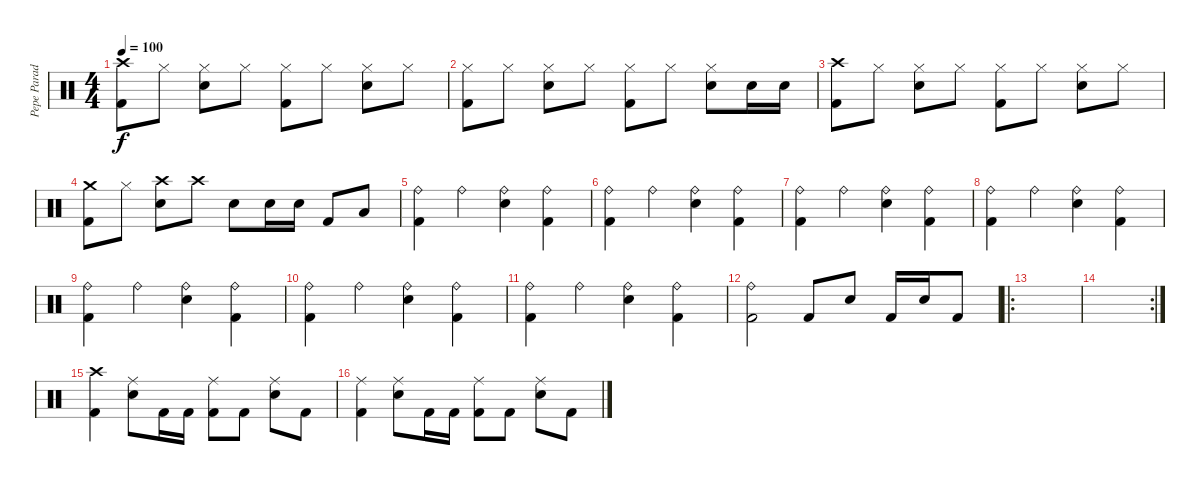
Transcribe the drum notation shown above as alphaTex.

\track ("Pepe Parada (kit de percusion)" "Pepe Parad") {instrument percussion}
\staff {score}
\articulation defaults
\ts (4 4)
\tempo 100
\clef neutral
\ks c
("Crash high (hit)" "Kick (hit) 2").8{dy f} "Hi-Hat (closed)".8 ("Hi-Hat (closed)" "Snare (hit) 2").8 "Hi-Hat (closed)".8 ("Hi-Hat (closed)" "Kick (hit) 2").8 "Hi-Hat (closed)".8 ("Hi-Hat (closed)" "Snare (hit) 2").8 "Hi-Hat (closed)".8 |
("Hi-Hat (closed)" "Kick (hit) 2").8 "Hi-Hat (closed)".8 ("Hi-Hat (closed)" "Snare (hit) 2").8 "Hi-Hat (closed)".8 ("Hi-Hat (closed)" "Kick (hit) 2").8 "Hi-Hat (closed)".8 ("Hi-Hat (closed)" "Snare (hit) 2").8 "Snare (hit) 2".16 "Snare (hit) 2".16 |
("Crash high (hit)" "Kick (hit) 2").8 "Hi-Hat (closed)".8 ("Hi-Hat (closed)" "Snare (hit) 2").8 "Hi-Hat (closed)".8 ("Hi-Hat (closed)" "Kick (hit) 2").8 "Hi-Hat (closed)".8 ("Hi-Hat (closed)" "Snare (hit) 2").8 "Hi-Hat (closed)".8 |
("Crash medium (hit)" "Kick (hit) 2").8 "Hi-Hat (closed)".8 ("Crash high (hit)" "Snare (hit) 2").8 "Crash high (hit)".8 "Snare (hit) 2".8 "Snare (hit) 2".16 "Snare (hit) 2".16 "Kick (hit) 2".8 "Low Floor Tom (hit)".8 |
("Ride (bell)" "Kick (hit) 2").4 "Ride (bell)".4 ("Ride (bell)" "Snare (hit) 2").4 ("Ride (bell)" "Kick (hit) 2").4 |
("Ride (bell)" "Kick (hit) 2").4 "Ride (bell)".4 ("Ride (bell)" "Snare (hit) 2").4 ("Ride (bell)" "Kick (hit) 2").4 |
("Ride (bell)" "Kick (hit) 2").4 "Ride (bell)".4 ("Ride (bell)" "Snare (hit) 2").4 ("Ride (bell)" "Kick (hit) 2").4 |
("Ride (bell)" "Kick (hit) 2").4 "Ride (bell)".4 ("Ride (bell)" "Snare (hit) 2").4 ("Ride (bell)" "Kick (hit) 2").4 |
("Ride (bell)" "Kick (hit) 2").4 "Ride (bell)".4 ("Ride (bell)" "Snare (hit) 2").4 ("Ride (bell)" "Kick (hit) 2").4 |
("Ride (bell)" "Kick (hit) 2").4 "Ride (bell)".4 ("Ride (bell)" "Snare (hit) 2").4 ("Ride (bell)" "Kick (hit) 2").4 |
("Ride (bell)" "Kick (hit) 2").4 "Ride (bell)".4 ("Ride (bell)" "Snare (hit) 2").4 ("Ride (bell)" "Kick (hit) 2").4 |
("Ride (bell)" "Kick (hit) 2").2 "Kick (hit) 2".8 "Snare (hit) 2".8 "Kick (hit) 2".16 "Snare (hit) 2".16 "Kick (hit) 2".8 |
\ro
|
\rc 2
|
("Crash high (hit)" "Kick (hit) 2").4 ("Ride (middle)" "Snare (hit) 2").8 "Kick (hit) 2".16 "Kick (hit) 2".16 ("Ride (middle)" "Kick (hit) 2").8 "Kick (hit) 2".8 ("Ride (middle)" "Snare (hit) 2").8 "Kick (hit) 2".8 |
("Ride (middle)" "Kick (hit) 2").4 ("Ride (middle)" "Snare (hit) 2").8 "Kick (hit) 2".16 "Kick (hit) 2".16 ("Ride (middle)" "Kick (hit) 2").8 "Kick (hit) 2".8 ("Ride (middle)" "Snare (hit) 2").8 "Kick (hit) 2".8
